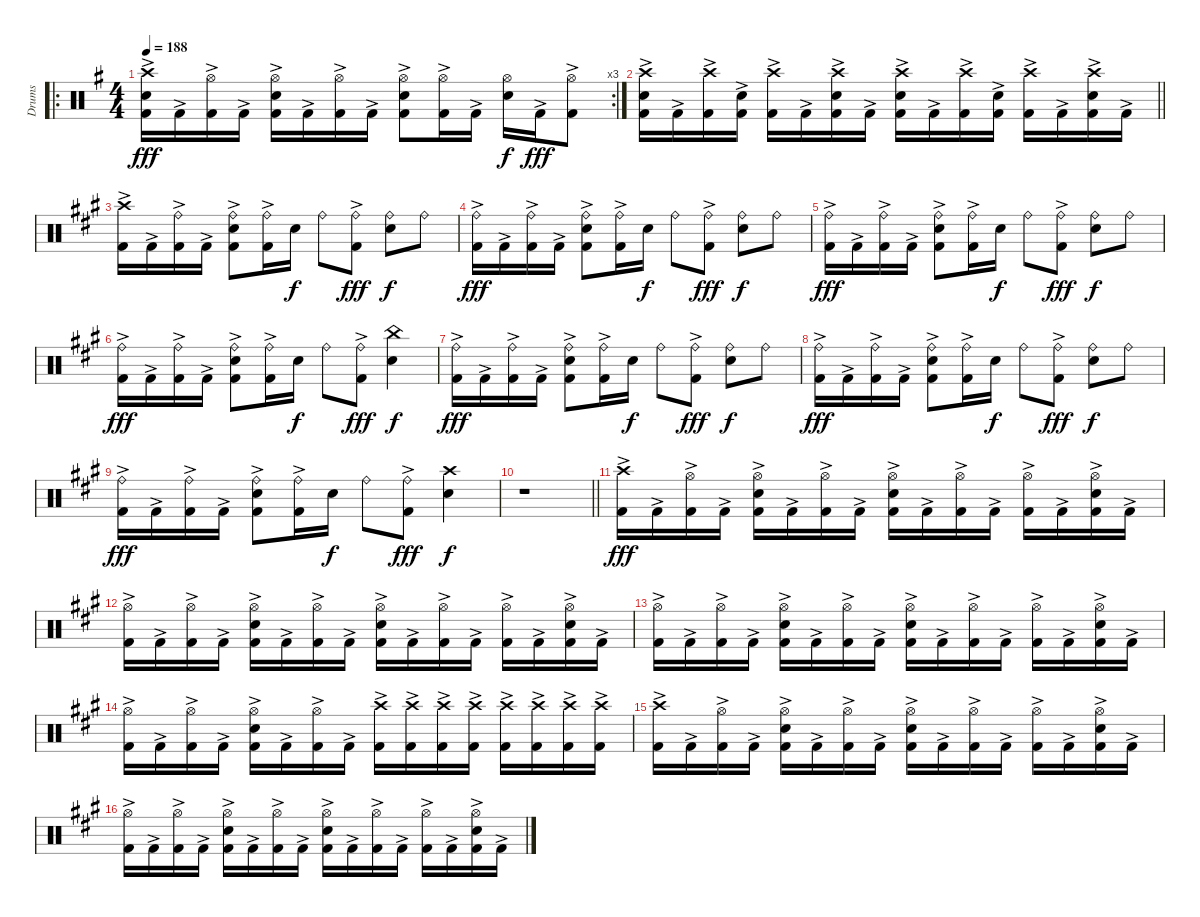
\track ("Drums" "Drums") {instrument percussion}
\staff {score}
\articulation defaults
\ro
\rc 3
\ts (4 4)
\tempo 188
\clef neutral
\ks eminor
("Crash high (hit)" "Snare (hit) 2" "Kick (hit) 2"{ac}).16{dy fff} "Kick (hit) 2"{ac}.16 ("Hi-Hat (open)" "Kick (hit) 2"{ac}).16 "Kick (hit) 2"{ac}.16 ("Hi-Hat (open)" "Snare (hit) 2" "Kick (hit) 2"{ac}).16 "Kick (hit) 2"{ac}.16 ("Hi-Hat (open)" "Kick (hit) 2"{ac}).16 "Kick (hit) 2"{ac}.16 ("Hi-Hat (open)" "Snare (hit) 2" "Kick (hit) 2"{ac}).8 ("Hi-Hat (open)" "Kick (hit) 2"{ac}).16 "Kick (hit) 2"{ac}.16 ("Hi-Hat (open)" "Snare (hit) 2").16{dy f} "Kick (hit) 2"{ac}.16{dy fff} ("Hi-Hat (open)" "Kick (hit) 2"{ac}).8 |
\barLineRight lightlight
("Crash high (hit)" "Snare (hit) 2" "Kick (hit) 2"{ac}).16 "Kick (hit) 2"{ac}.16 ("Crash high (hit)" "Kick (hit) 2"{ac}).16 ("Snare (hit) 2" "Kick (hit) 2"{ac}).16 ("Crash high (hit)" "Kick (hit) 2"{ac}).16 "Kick (hit) 2"{ac}.16 ("Crash high (hit)" "Snare (hit) 2" "Kick (hit) 2"{ac}).16 "Kick (hit) 2"{ac}.16 ("Crash high (hit)" "Snare (hit) 2" "Kick (hit) 2"{ac}).16 "Kick (hit) 2"{ac}.16 ("Crash high (hit)" "Kick (hit) 2"{ac}).16 ("Snare (hit) 2" "Kick (hit) 2"{ac}).16 ("Crash high (hit)" "Kick (hit) 2"{ac}).16 "Kick (hit) 2"{ac}.16 ("Crash high (hit)" "Snare (hit) 2" "Kick (hit) 2"{ac}).16 "Kick (hit) 2"{ac}.16 |
\ks f#minor
("Crash high (hit)" "Kick (hit) 2"{ac}).16 "Kick (hit) 2"{ac}.16 ("Ride (bell)" "Kick (hit) 2"{ac}).16 "Kick (hit) 2"{ac}.16 ("Ride (bell)" "Snare (hit) 2" "Kick (hit) 2"{ac}).8 ("Ride (bell)" "Kick (hit) 2"{ac}).16 "Snare (hit) 2".16{dy f} "Ride (bell)".8 ("Ride (bell)" "Kick (hit) 2"{ac}).8{dy fff} ("Ride (bell)" "Snare (hit) 2").8{dy f} "Ride (bell)".8 |
("Ride (bell)" "Kick (hit) 2"{ac}).16{dy fff} "Kick (hit) 2"{ac}.16 ("Ride (bell)" "Kick (hit) 2"{ac}).16 "Kick (hit) 2"{ac}.16 ("Ride (bell)" "Snare (hit) 2" "Kick (hit) 2"{ac}).8 ("Ride (bell)" "Kick (hit) 2"{ac}).16 "Snare (hit) 2".16{dy f} "Ride (bell)".8 ("Ride (bell)" "Kick (hit) 2"{ac}).8{dy fff} ("Ride (bell)" "Snare (hit) 2").8{dy f} "Ride (bell)".8 |
("Ride (bell)" "Kick (hit) 2"{ac}).16{dy fff} "Kick (hit) 2"{ac}.16 ("Ride (bell)" "Kick (hit) 2"{ac}).16 "Kick (hit) 2"{ac}.16 ("Ride (bell)" "Snare (hit) 2" "Kick (hit) 2"{ac}).8 ("Ride (bell)" "Kick (hit) 2"{ac}).16 "Snare (hit) 2".16{dy f} "Ride (bell)".8 ("Ride (bell)" "Kick (hit) 2"{ac}).8{dy fff} ("Ride (bell)" "Snare (hit) 2").8{dy f} "Ride (bell)".8 |
("Ride (bell)" "Kick (hit) 2"{ac}).16{dy fff} "Kick (hit) 2"{ac}.16 ("Ride (bell)" "Kick (hit) 2"{ac}).16 "Kick (hit) 2"{ac}.16 ("Ride (bell)" "Snare (hit) 2" "Kick (hit) 2"{ac}).8 ("Ride (bell)" "Kick (hit) 2"{ac}).16 "Snare (hit) 2".16{dy f} "Ride (bell)".8 ("Ride (bell)" "Kick (hit) 2"{ac}).8{dy fff} ("China (hit)" "Snare (hit) 2").4{dy f} |
("Ride (bell)" "Kick (hit) 2"{ac}).16{dy fff} "Kick (hit) 2"{ac}.16 ("Ride (bell)" "Kick (hit) 2"{ac}).16 "Kick (hit) 2"{ac}.16 ("Ride (bell)" "Snare (hit) 2" "Kick (hit) 2"{ac}).8 ("Ride (bell)" "Kick (hit) 2"{ac}).16 "Snare (hit) 2".16{dy f} "Ride (bell)".8 ("Ride (bell)" "Kick (hit) 2"{ac}).8{dy fff} ("Ride (bell)" "Snare (hit) 2").8{dy f} "Ride (bell)".8 |
("Ride (bell)" "Kick (hit) 2"{ac}).16{dy fff} "Kick (hit) 2"{ac}.16 ("Ride (bell)" "Kick (hit) 2"{ac}).16 "Kick (hit) 2"{ac}.16 ("Ride (bell)" "Snare (hit) 2" "Kick (hit) 2"{ac}).8 ("Ride (bell)" "Kick (hit) 2"{ac}).16 "Snare (hit) 2".16{dy f} "Ride (bell)".8 ("Ride (bell)" "Kick (hit) 2"{ac}).8{dy fff} ("Ride (bell)" "Snare (hit) 2").8{dy f} "Ride (bell)".8 |
("Ride (bell)" "Kick (hit) 2"{ac}).16{dy fff} "Kick (hit) 2"{ac}.16 ("Ride (bell)" "Kick (hit) 2"{ac}).16 "Kick (hit) 2"{ac}.16 ("Ride (bell)" "Snare (hit) 2" "Kick (hit) 2"{ac}).8 ("Ride (bell)" "Kick (hit) 2"{ac}).16 "Snare (hit) 2".16{dy f} "Ride (bell)".8 ("Ride (bell)" "Kick (hit) 2"{ac}).8{dy fff} ("Crash high (hit)" "Snare (hit) 2").4{dy f} |
\barLineRight lightlight
r.1 |
("Crash high (hit)" "Kick (hit) 2"{ac}).16{dy fff} "Kick (hit) 2"{ac}.16 ("Hi-Hat (open)" "Kick (hit) 2"{ac}).16 "Kick (hit) 2"{ac}.16 ("Hi-Hat (open)" "Snare (hit) 2" "Kick (hit) 2"{ac}).16 "Kick (hit) 2"{ac}.16 ("Hi-Hat (open)" "Kick (hit) 2"{ac}).16 "Kick (hit) 2"{ac}.16 ("Hi-Hat (open)" "Snare (hit) 2" "Kick (hit) 2"{ac}).16 "Kick (hit) 2"{ac}.16 ("Hi-Hat (open)" "Kick (hit) 2"{ac}).16 "Kick (hit) 2"{ac}.16 ("Hi-Hat (open)" "Kick (hit) 2"{ac}).16 "Kick (hit) 2"{ac}.16 ("Hi-Hat (open)" "Snare (hit) 2" "Kick (hit) 2"{ac}).16 "Kick (hit) 2"{ac}.16 |
("Hi-Hat (open)" "Kick (hit) 2"{ac}).16 "Kick (hit) 2"{ac}.16 ("Hi-Hat (open)" "Kick (hit) 2"{ac}).16 "Kick (hit) 2"{ac}.16 ("Hi-Hat (open)" "Snare (hit) 2" "Kick (hit) 2"{ac}).16 "Kick (hit) 2"{ac}.16 ("Hi-Hat (open)" "Kick (hit) 2"{ac}).16 "Kick (hit) 2"{ac}.16 ("Hi-Hat (open)" "Snare (hit) 2" "Kick (hit) 2"{ac}).16 "Kick (hit) 2"{ac}.16 ("Hi-Hat (open)" "Kick (hit) 2"{ac}).16 "Kick (hit) 2"{ac}.16 ("Hi-Hat (open)" "Kick (hit) 2"{ac}).16 "Kick (hit) 2"{ac}.16 ("Hi-Hat (open)" "Snare (hit) 2" "Kick (hit) 2"{ac}).16 "Kick (hit) 2"{ac}.16 |
("Hi-Hat (open)" "Kick (hit) 2"{ac}).16 "Kick (hit) 2"{ac}.16 ("Hi-Hat (open)" "Kick (hit) 2"{ac}).16 "Kick (hit) 2"{ac}.16 ("Hi-Hat (open)" "Snare (hit) 2" "Kick (hit) 2"{ac}).16 "Kick (hit) 2"{ac}.16 ("Hi-Hat (open)" "Kick (hit) 2"{ac}).16 "Kick (hit) 2"{ac}.16 ("Hi-Hat (open)" "Snare (hit) 2" "Kick (hit) 2"{ac}).16 "Kick (hit) 2"{ac}.16 ("Hi-Hat (open)" "Kick (hit) 2"{ac}).16 "Kick (hit) 2"{ac}.16 ("Hi-Hat (open)" "Kick (hit) 2"{ac}).16 "Kick (hit) 2"{ac}.16 ("Hi-Hat (open)" "Snare (hit) 2" "Kick (hit) 2"{ac}).16 "Kick (hit) 2"{ac}.16 |
("Hi-Hat (open)" "Kick (hit) 2"{ac}).16 "Kick (hit) 2"{ac}.16 ("Hi-Hat (open)" "Kick (hit) 2"{ac}).16 "Kick (hit) 2"{ac}.16 ("Hi-Hat (open)" "Snare (hit) 2" "Kick (hit) 2"{ac}).16 "Kick (hit) 2"{ac}.16 ("Hi-Hat (open)" "Kick (hit) 2"{ac}).16 "Kick (hit) 2"{ac}.16 ("Crash high (hit)" "Kick (hit) 2"{ac}).16 ("Crash high (hit)" "Kick (hit) 2"{ac}).16 ("Crash high (hit)" "Kick (hit) 2"{ac}).16 ("Crash high (hit)" "Kick (hit) 2"{ac}).16 ("Crash high (hit)" "Kick (hit) 2"{ac}).16 ("Crash high (hit)" "Kick (hit) 2"{ac}).16 ("Crash high (hit)" "Kick (hit) 2"{ac}).16 ("Crash high (hit)" "Kick (hit) 2"{ac}).16 |
("Crash high (hit)" "Kick (hit) 2"{ac}).16 "Kick (hit) 2"{ac}.16 ("Hi-Hat (open)" "Kick (hit) 2"{ac}).16 "Kick (hit) 2"{ac}.16 ("Hi-Hat (open)" "Snare (hit) 2" "Kick (hit) 2"{ac}).16 "Kick (hit) 2"{ac}.16 ("Hi-Hat (open)" "Kick (hit) 2"{ac}).16 "Kick (hit) 2"{ac}.16 ("Hi-Hat (open)" "Snare (hit) 2" "Kick (hit) 2"{ac}).16 "Kick (hit) 2"{ac}.16 ("Hi-Hat (open)" "Kick (hit) 2"{ac}).16 "Kick (hit) 2"{ac}.16 ("Hi-Hat (open)" "Kick (hit) 2"{ac}).16 "Kick (hit) 2"{ac}.16 ("Hi-Hat (open)" "Snare (hit) 2" "Kick (hit) 2"{ac}).16 "Kick (hit) 2"{ac}.16 |
("Hi-Hat (open)" "Kick (hit) 2"{ac}).16 "Kick (hit) 2"{ac}.16 ("Hi-Hat (open)" "Kick (hit) 2"{ac}).16 "Kick (hit) 2"{ac}.16 ("Hi-Hat (open)" "Snare (hit) 2" "Kick (hit) 2"{ac}).16 "Kick (hit) 2"{ac}.16 ("Hi-Hat (open)" "Kick (hit) 2"{ac}).16 "Kick (hit) 2"{ac}.16 ("Hi-Hat (open)" "Snare (hit) 2" "Kick (hit) 2"{ac}).16 "Kick (hit) 2"{ac}.16 ("Hi-Hat (open)" "Kick (hit) 2"{ac}).16 "Kick (hit) 2"{ac}.16 ("Hi-Hat (open)" "Kick (hit) 2"{ac}).16 "Kick (hit) 2"{ac}.16 ("Hi-Hat (open)" "Snare (hit) 2" "Kick (hit) 2"{ac}).16 "Kick (hit) 2"{ac}.16
